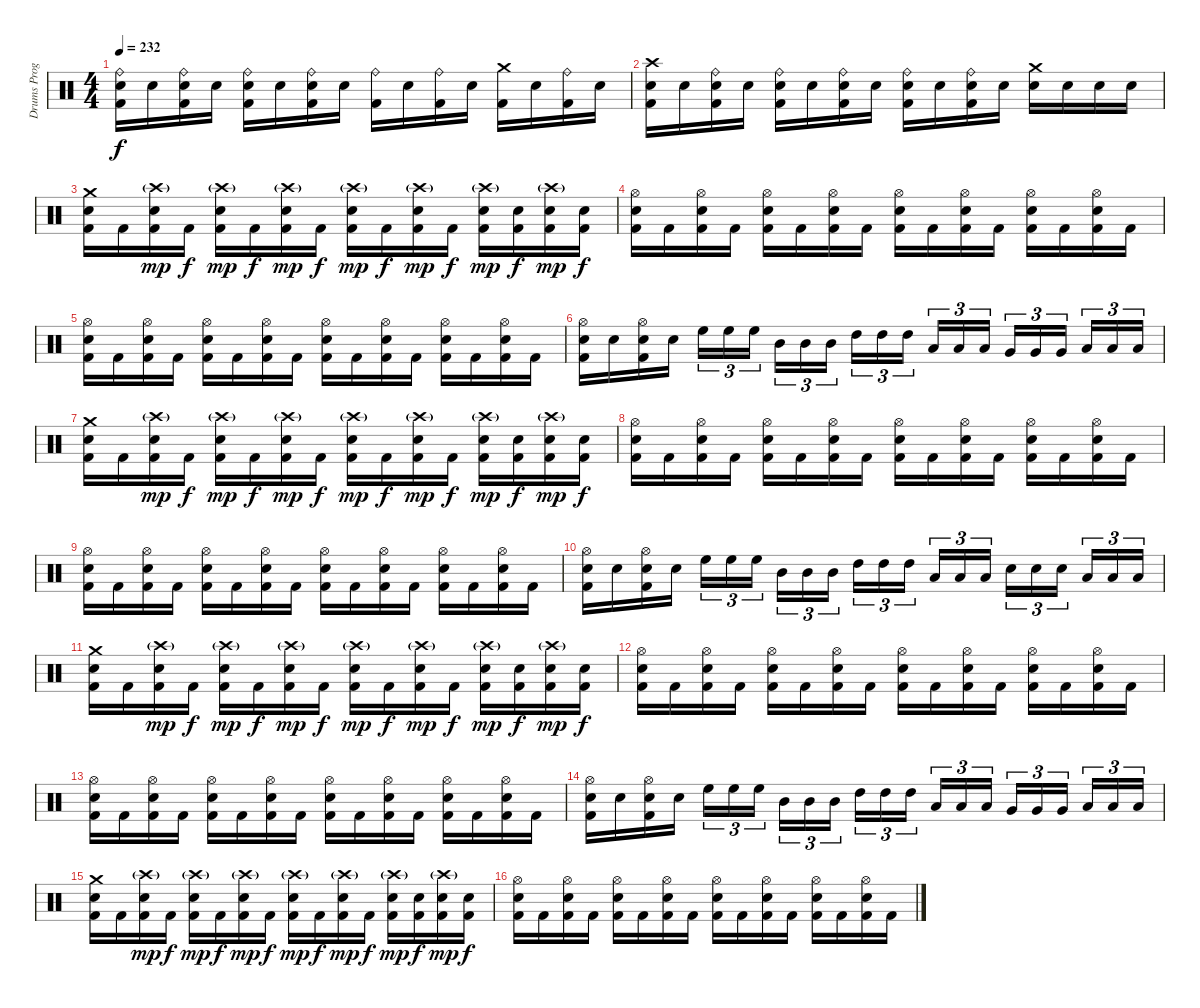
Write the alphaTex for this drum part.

\track ("Drums Programming" "Drums Prog") {instrument percussion}
\staff {score}
\articulation defaults
\ts (4 4)
\tempo 232
\clef neutral
\ks c
("Ride (bell)" "Electric Snare (hit)" "Kick (hit) 2").16{dy f} "Electric Snare (hit)".16 ("Ride (bell)" "Electric Snare (hit)" "Kick (hit) 2").16 "Electric Snare (hit)".16 ("Ride (bell)" "Electric Snare (hit)" "Kick (hit) 2").16 "Electric Snare (hit)".16 ("Ride (bell)" "Electric Snare (hit)" "Kick (hit) 2").16 "Electric Snare (hit)".16 ("Ride (bell)" "Kick (hit) 2").16 "Electric Snare (hit)".16 ("Ride (bell)" "Kick (hit) 2").16 "Electric Snare (hit)".16 ("Crash medium (hit)" "Kick (hit) 2").16 "Electric Snare (hit)".16 ("Ride (bell)" "Kick (hit) 2").16 "Electric Snare (hit)".16 |
("Crash high (hit)" "Electric Snare (hit)" "Kick (hit) 2").16 "Electric Snare (hit)".16 ("Ride (bell)" "Electric Snare (hit)" "Kick (hit) 2").16 "Electric Snare (hit)".16 ("Ride (bell)" "Electric Snare (hit)" "Kick (hit) 2").16 "Electric Snare (hit)".16 ("Ride (bell)" "Electric Snare (hit)" "Kick (hit) 2").16 "Electric Snare (hit)".16 ("Ride (bell)" "Electric Snare (hit)" "Kick (hit) 2").16 "Electric Snare (hit)".16 ("Ride (bell)" "Electric Snare (hit)" "Kick (hit) 2").16 "Electric Snare (hit)".16 ("Crash medium (hit)" "Electric Snare (hit)").16 "Electric Snare (hit)".16 "Electric Snare (hit)".16 "Electric Snare (hit)".16 |
("Crash medium (hit)" "Electric Snare (hit)" "Kick (hit) 2").16 "Kick (hit) 2".16 ("Crash high (hit)"{g} "Electric Snare (hit)" "Kick (hit) 2").16{dy mp} "Kick (hit) 2".16{dy f} ("Crash high (hit)"{g} "Electric Snare (hit)" "Kick (hit) 2").16{dy mp} "Kick (hit) 2".16{dy f} ("Crash high (hit)"{g} "Electric Snare (hit)" "Kick (hit) 2").16{dy mp} "Kick (hit) 2".16{dy f} ("Crash high (hit)"{g} "Electric Snare (hit)" "Kick (hit) 2").16{dy mp} "Kick (hit) 2".16{dy f} ("Crash high (hit)"{g} "Electric Snare (hit)" "Kick (hit) 2").16{dy mp} "Kick (hit) 2".16{dy f} ("Crash high (hit)"{g} "Electric Snare (hit)" "Kick (hit) 2").16{dy mp} ("Electric Snare (hit)" "Kick (hit) 2").16{dy f} ("Crash high (hit)"{g} "Electric Snare (hit)" "Kick (hit) 2").16{dy mp} ("Electric Snare (hit)" "Kick (hit) 2").16{dy f} |
("Hi-Hat (open)" "Electric Snare (hit)" "Kick (hit) 2").16 "Kick (hit) 2".16 ("Hi-Hat (open)" "Electric Snare (hit)" "Kick (hit) 2").16 "Kick (hit) 2".16 ("Hi-Hat (open)" "Electric Snare (hit)" "Kick (hit) 2").16 "Kick (hit) 2".16 ("Hi-Hat (open)" "Electric Snare (hit)" "Kick (hit) 2").16 "Kick (hit) 2".16 ("Hi-Hat (open)" "Electric Snare (hit)" "Kick (hit) 2").16 "Kick (hit) 2".16 ("Hi-Hat (open)" "Electric Snare (hit)" "Kick (hit) 2").16 "Kick (hit) 2".16 ("Hi-Hat (open)" "Electric Snare (hit)" "Kick (hit) 2").16 "Kick (hit) 2".16 ("Hi-Hat (open)" "Electric Snare (hit)" "Kick (hit) 2").16 "Kick (hit) 2".16 |
("Hi-Hat (open)" "Electric Snare (hit)" "Kick (hit) 2").16 "Kick (hit) 2".16 ("Hi-Hat (open)" "Electric Snare (hit)" "Kick (hit) 2").16 "Kick (hit) 2".16 ("Hi-Hat (open)" "Electric Snare (hit)" "Kick (hit) 2").16 "Kick (hit) 2".16 ("Hi-Hat (open)" "Electric Snare (hit)" "Kick (hit) 2").16 "Kick (hit) 2".16 ("Hi-Hat (open)" "Electric Snare (hit)" "Kick (hit) 2").16 "Kick (hit) 2".16 ("Hi-Hat (open)" "Electric Snare (hit)" "Kick (hit) 2").16 "Kick (hit) 2".16 ("Hi-Hat (open)" "Electric Snare (hit)" "Kick (hit) 2").16 "Kick (hit) 2".16 ("Hi-Hat (open)" "Electric Snare (hit)" "Kick (hit) 2").16 "Kick (hit) 2".16 |
("Hi-Hat (open)" "Electric Snare (hit)" "Kick (hit) 2").16 "Electric Snare (hit)".16 ("Hi-Hat (open)" "Electric Snare (hit)" "Kick (hit) 2").16 "Electric Snare (hit)".16 "High Floor Tom (hit)".16{tu (3 2)} "High Floor Tom (hit)".16{tu (3 2)} "High Floor Tom (hit)".16{tu (3 2)} "Mid Tom (hit)".16{tu (3 2)} "Mid Tom (hit)".16{tu (3 2)} "Mid Tom (hit)".16{tu (3 2)} "High Tom (hit)".16{tu (3 2)} "High Tom (hit)".16{tu (3 2)} "High Tom (hit)".16{tu (3 2)} "Low Tom (hit)".16{tu (3 2)} "Low Tom (hit)".16{tu (3 2)} "Low Tom (hit)".16{tu (3 2)} "Very Low Tom (hit)".16{tu (3 2)} "Very Low Tom (hit)".16{tu (3 2)} "Very Low Tom (hit)".16{tu (3 2)} "Low Floor Tom (hit)".16{tu (3 2)} "Low Floor Tom (hit)".16{tu (3 2)} "Low Floor Tom (hit)".16{tu (3 2)} |
("Crash medium (hit)" "Electric Snare (hit)" "Kick (hit) 2").16 "Kick (hit) 2".16 ("Crash high (hit)"{g} "Electric Snare (hit)" "Kick (hit) 2").16{dy mp} "Kick (hit) 2".16{dy f} ("Crash high (hit)"{g} "Electric Snare (hit)" "Kick (hit) 2").16{dy mp} "Kick (hit) 2".16{dy f} ("Crash high (hit)"{g} "Electric Snare (hit)" "Kick (hit) 2").16{dy mp} "Kick (hit) 2".16{dy f} ("Crash high (hit)"{g} "Electric Snare (hit)" "Kick (hit) 2").16{dy mp} "Kick (hit) 2".16{dy f} ("Crash high (hit)"{g} "Electric Snare (hit)" "Kick (hit) 2").16{dy mp} "Kick (hit) 2".16{dy f} ("Crash high (hit)"{g} "Electric Snare (hit)" "Kick (hit) 2").16{dy mp} ("Electric Snare (hit)" "Kick (hit) 2").16{dy f} ("Crash high (hit)"{g} "Electric Snare (hit)" "Kick (hit) 2").16{dy mp} ("Electric Snare (hit)" "Kick (hit) 2").16{dy f} |
("Hi-Hat (open)" "Electric Snare (hit)" "Kick (hit) 2").16 "Kick (hit) 2".16 ("Hi-Hat (open)" "Electric Snare (hit)" "Kick (hit) 2").16 "Kick (hit) 2".16 ("Hi-Hat (open)" "Electric Snare (hit)" "Kick (hit) 2").16 "Kick (hit) 2".16 ("Hi-Hat (open)" "Electric Snare (hit)" "Kick (hit) 2").16 "Kick (hit) 2".16 ("Hi-Hat (open)" "Electric Snare (hit)" "Kick (hit) 2").16 "Kick (hit) 2".16 ("Hi-Hat (open)" "Electric Snare (hit)" "Kick (hit) 2").16 "Kick (hit) 2".16 ("Hi-Hat (open)" "Electric Snare (hit)" "Kick (hit) 2").16 "Kick (hit) 2".16 ("Hi-Hat (open)" "Electric Snare (hit)" "Kick (hit) 2").16 "Kick (hit) 2".16 |
("Hi-Hat (open)" "Electric Snare (hit)" "Kick (hit) 2").16 "Kick (hit) 2".16 ("Hi-Hat (open)" "Electric Snare (hit)" "Kick (hit) 2").16 "Kick (hit) 2".16 ("Hi-Hat (open)" "Electric Snare (hit)" "Kick (hit) 2").16 "Kick (hit) 2".16 ("Hi-Hat (open)" "Electric Snare (hit)" "Kick (hit) 2").16 "Kick (hit) 2".16 ("Hi-Hat (open)" "Electric Snare (hit)" "Kick (hit) 2").16 "Kick (hit) 2".16 ("Hi-Hat (open)" "Electric Snare (hit)" "Kick (hit) 2").16 "Kick (hit) 2".16 ("Hi-Hat (open)" "Electric Snare (hit)" "Kick (hit) 2").16 "Kick (hit) 2".16 ("Hi-Hat (open)" "Electric Snare (hit)" "Kick (hit) 2").16 "Kick (hit) 2".16 |
("Hi-Hat (open)" "Electric Snare (hit)" "Kick (hit) 2").16 "Electric Snare (hit)".16 ("Hi-Hat (open)" "Electric Snare (hit)" "Kick (hit) 2").16 "Electric Snare (hit)".16 "High Floor Tom (hit)".16{tu (3 2)} "High Floor Tom (hit)".16{tu (3 2)} "High Floor Tom (hit)".16{tu (3 2)} "Mid Tom (hit)".16{tu (3 2)} "Mid Tom (hit)".16{tu (3 2)} "Mid Tom (hit)".16{tu (3 2)} "High Tom (hit)".16{tu (3 2)} "High Tom (hit)".16{tu (3 2)} "High Tom (hit)".16{tu (3 2)} "Low Tom (hit)".16{tu (3 2)} "Low Tom (hit)".16{tu (3 2)} "Low Tom (hit)".16{tu (3 2)} "Electric Snare (hit)".16{tu (3 2)} "Electric Snare (hit)".16{tu (3 2)} "Electric Snare (hit)".16{tu (3 2)} "Low Floor Tom (hit)".16{tu (3 2)} "Low Floor Tom (hit)".16{tu (3 2)} "Low Floor Tom (hit)".16{tu (3 2)} |
("Crash medium (hit)" "Electric Snare (hit)" "Kick (hit) 2").16 "Kick (hit) 2".16 ("Crash high (hit)"{g} "Electric Snare (hit)" "Kick (hit) 2").16{dy mp} "Kick (hit) 2".16{dy f} ("Crash high (hit)"{g} "Electric Snare (hit)" "Kick (hit) 2").16{dy mp} "Kick (hit) 2".16{dy f} ("Crash high (hit)"{g} "Electric Snare (hit)" "Kick (hit) 2").16{dy mp} "Kick (hit) 2".16{dy f} ("Crash high (hit)"{g} "Electric Snare (hit)" "Kick (hit) 2").16{dy mp} "Kick (hit) 2".16{dy f} ("Crash high (hit)"{g} "Electric Snare (hit)" "Kick (hit) 2").16{dy mp} "Kick (hit) 2".16{dy f} ("Crash high (hit)"{g} "Electric Snare (hit)" "Kick (hit) 2").16{dy mp} ("Electric Snare (hit)" "Kick (hit) 2").16{dy f} ("Crash high (hit)"{g} "Electric Snare (hit)" "Kick (hit) 2").16{dy mp} ("Electric Snare (hit)" "Kick (hit) 2").16{dy f} |
("Hi-Hat (open)" "Electric Snare (hit)" "Kick (hit) 2").16 "Kick (hit) 2".16 ("Hi-Hat (open)" "Electric Snare (hit)" "Kick (hit) 2").16 "Kick (hit) 2".16 ("Hi-Hat (open)" "Electric Snare (hit)" "Kick (hit) 2").16 "Kick (hit) 2".16 ("Hi-Hat (open)" "Electric Snare (hit)" "Kick (hit) 2").16 "Kick (hit) 2".16 ("Hi-Hat (open)" "Electric Snare (hit)" "Kick (hit) 2").16 "Kick (hit) 2".16 ("Hi-Hat (open)" "Electric Snare (hit)" "Kick (hit) 2").16 "Kick (hit) 2".16 ("Hi-Hat (open)" "Electric Snare (hit)" "Kick (hit) 2").16 "Kick (hit) 2".16 ("Hi-Hat (open)" "Electric Snare (hit)" "Kick (hit) 2").16 "Kick (hit) 2".16 |
("Hi-Hat (open)" "Electric Snare (hit)" "Kick (hit) 2").16 "Kick (hit) 2".16 ("Hi-Hat (open)" "Electric Snare (hit)" "Kick (hit) 2").16 "Kick (hit) 2".16 ("Hi-Hat (open)" "Electric Snare (hit)" "Kick (hit) 2").16 "Kick (hit) 2".16 ("Hi-Hat (open)" "Electric Snare (hit)" "Kick (hit) 2").16 "Kick (hit) 2".16 ("Hi-Hat (open)" "Electric Snare (hit)" "Kick (hit) 2").16 "Kick (hit) 2".16 ("Hi-Hat (open)" "Electric Snare (hit)" "Kick (hit) 2").16 "Kick (hit) 2".16 ("Hi-Hat (open)" "Electric Snare (hit)" "Kick (hit) 2").16 "Kick (hit) 2".16 ("Hi-Hat (open)" "Electric Snare (hit)" "Kick (hit) 2").16 "Kick (hit) 2".16 |
("Hi-Hat (open)" "Electric Snare (hit)" "Kick (hit) 2").16 "Electric Snare (hit)".16 ("Hi-Hat (open)" "Electric Snare (hit)" "Kick (hit) 2").16 "Electric Snare (hit)".16 "High Floor Tom (hit)".16{tu (3 2)} "High Floor Tom (hit)".16{tu (3 2)} "High Floor Tom (hit)".16{tu (3 2)} "Mid Tom (hit)".16{tu (3 2)} "Mid Tom (hit)".16{tu (3 2)} "Mid Tom (hit)".16{tu (3 2)} "High Tom (hit)".16{tu (3 2)} "High Tom (hit)".16{tu (3 2)} "High Tom (hit)".16{tu (3 2)} "Low Tom (hit)".16{tu (3 2)} "Low Tom (hit)".16{tu (3 2)} "Low Tom (hit)".16{tu (3 2)} "Very Low Tom (hit)".16{tu (3 2)} "Very Low Tom (hit)".16{tu (3 2)} "Very Low Tom (hit)".16{tu (3 2)} "Low Floor Tom (hit)".16{tu (3 2)} "Low Floor Tom (hit)".16{tu (3 2)} "Low Floor Tom (hit)".16{tu (3 2)} |
("Crash medium (hit)" "Electric Snare (hit)" "Kick (hit) 2").16 "Kick (hit) 2".16 ("Crash high (hit)"{g} "Electric Snare (hit)" "Kick (hit) 2").16{dy mp} "Kick (hit) 2".16{dy f} ("Crash high (hit)"{g} "Electric Snare (hit)" "Kick (hit) 2").16{dy mp} "Kick (hit) 2".16{dy f} ("Crash high (hit)"{g} "Electric Snare (hit)" "Kick (hit) 2").16{dy mp} "Kick (hit) 2".16{dy f} ("Crash high (hit)"{g} "Electric Snare (hit)" "Kick (hit) 2").16{dy mp} "Kick (hit) 2".16{dy f} ("Crash high (hit)"{g} "Electric Snare (hit)" "Kick (hit) 2").16{dy mp} "Kick (hit) 2".16{dy f} ("Crash high (hit)"{g} "Electric Snare (hit)" "Kick (hit) 2").16{dy mp} ("Electric Snare (hit)" "Kick (hit) 2").16{dy f} ("Crash high (hit)"{g} "Electric Snare (hit)" "Kick (hit) 2").16{dy mp} ("Electric Snare (hit)" "Kick (hit) 2").16{dy f} |
("Hi-Hat (open)" "Electric Snare (hit)" "Kick (hit) 2").16 "Kick (hit) 2".16 ("Hi-Hat (open)" "Electric Snare (hit)" "Kick (hit) 2").16 "Kick (hit) 2".16 ("Hi-Hat (open)" "Electric Snare (hit)" "Kick (hit) 2").16 "Kick (hit) 2".16 ("Hi-Hat (open)" "Electric Snare (hit)" "Kick (hit) 2").16 "Kick (hit) 2".16 ("Hi-Hat (open)" "Electric Snare (hit)" "Kick (hit) 2").16 "Kick (hit) 2".16 ("Hi-Hat (open)" "Electric Snare (hit)" "Kick (hit) 2").16 "Kick (hit) 2".16 ("Hi-Hat (open)" "Electric Snare (hit)" "Kick (hit) 2").16 "Kick (hit) 2".16 ("Hi-Hat (open)" "Electric Snare (hit)" "Kick (hit) 2").16 "Kick (hit) 2".16
